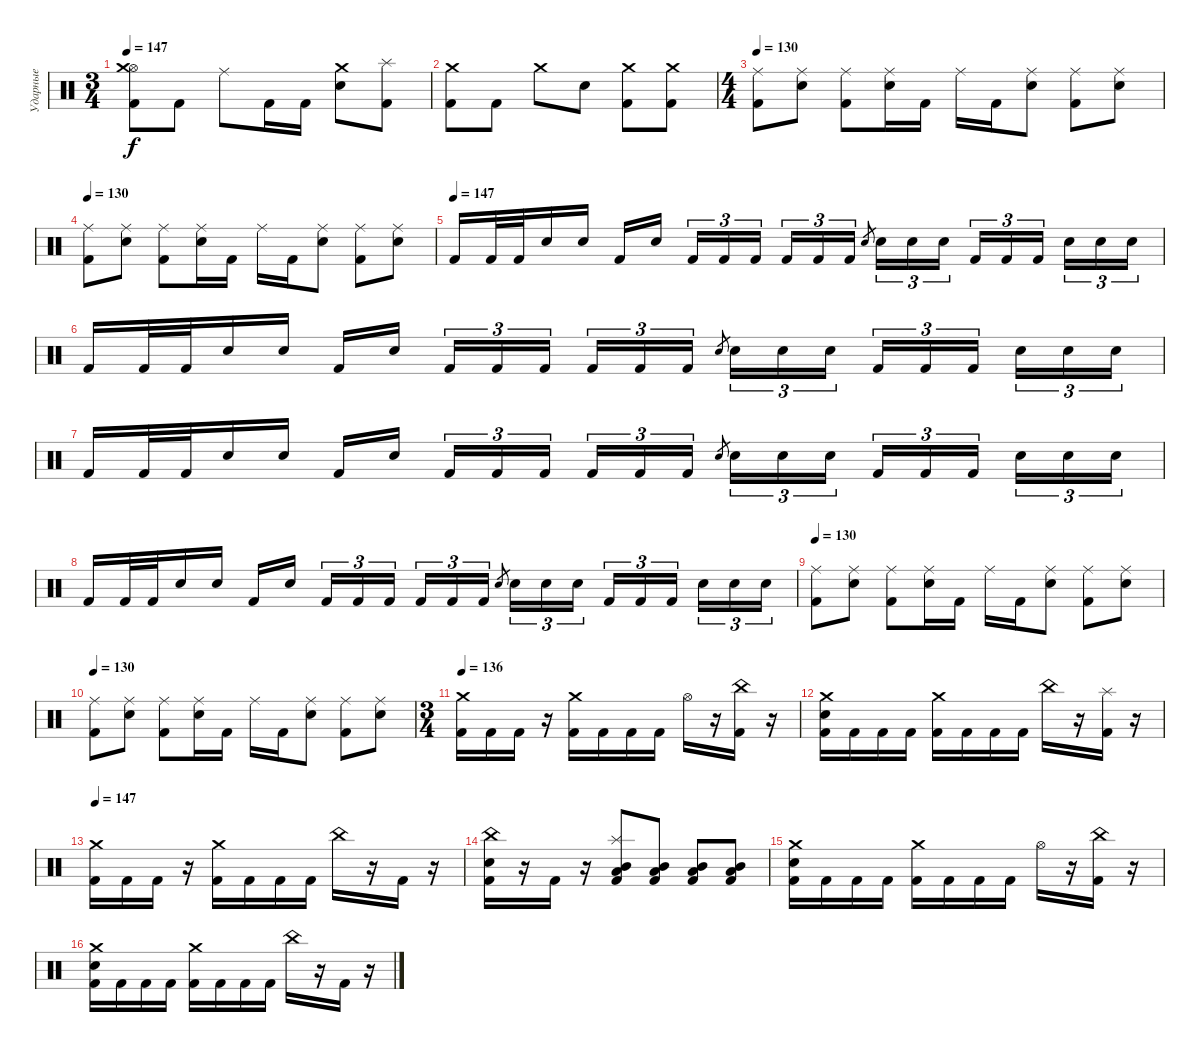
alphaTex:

\track ("Ударные" "Ударные") {instrument percussion}
\staff {score}
\articulation defaults
\ts (3 4)
\tempo 147
\clef neutral
\ks c
("Hi-Hat (open)" "Crash medium (hit)" "Kick (hit) 2").8{dy f} "Kick (hit) 2".8 "Ride (middle)".8 "Kick (hit) 2".16 "Kick (hit) 2".16 ("Crash medium (hit)" "Electric Snare (hit)").8 ("Splash (hit)" "Kick (hit) 2").8 |
("Crash medium (hit)" "Kick (hit) 2").8 "Kick (hit) 2".8 "Crash medium (hit)".8 "Electric Snare (hit)".8 ("Crash medium (hit)" "Kick (hit) 2").8 ("Crash medium (hit)" "Kick (hit) 2").8 |
\ts (4 4)
\tempo 130
("Ride (middle)" "Kick (hit) 2").8 ("Ride (middle)" "Electric Snare (hit)").8 ("Ride (middle)" "Kick (hit) 2").8 ("Ride (middle)" "Electric Snare (hit)").16 "Kick (hit) 2".16 "Ride (middle)".16 "Kick (hit) 2".16 ("Ride (middle)" "Electric Snare (hit)").8 ("Ride (middle)" "Kick (hit) 2").8 ("Ride (middle)" "Electric Snare (hit)").8 |
\tempo 130
("Ride (middle)" "Kick (hit) 2").8 ("Ride (middle)" "Electric Snare (hit)").8 ("Ride (middle)" "Kick (hit) 2").8 ("Ride (middle)" "Electric Snare (hit)").16 "Kick (hit) 2".16 "Ride (middle)".16 "Kick (hit) 2".16 ("Ride (middle)" "Electric Snare (hit)").8 ("Ride (middle)" "Kick (hit) 2").8 ("Ride (middle)" "Electric Snare (hit)").8 |
\tempo (147)
"Kick (hit) 2".16 "Kick (hit) 2".32 "Kick (hit) 2".32 "Electric Snare (hit)".16 "Electric Snare (hit)".16 "Kick (hit) 2".16 "Electric Snare (hit)".16{beam splitsecondary} "Kick (hit) 2".16{tu (3 2)} "Kick (hit) 2".16{tu (3 2)} "Kick (hit) 2".16{tu (3 2)} "Kick (hit) 2".16{tu (3 2)} "Kick (hit) 2".16{tu (3 2)} "Kick (hit) 2".16{tu (3 2)} "Electric Snare (hit)".8{gr beam splitsecondary} "Electric Snare (hit)".16{tu (3 2)} "Electric Snare (hit)".16{tu (3 2)} "Electric Snare (hit)".16{tu (3 2)} "Kick (hit) 2".16{tu (3 2)} "Kick (hit) 2".16{tu (3 2)} "Kick (hit) 2".16{tu (3 2) beam splitsecondary} "Electric Snare (hit)".16{tu (3 2)} "Electric Snare (hit)".16{tu (3 2)} "Electric Snare (hit)".16{tu (3 2)} |
"Kick (hit) 2".16 "Kick (hit) 2".32 "Kick (hit) 2".32 "Electric Snare (hit)".16 "Electric Snare (hit)".16 "Kick (hit) 2".16 "Electric Snare (hit)".16{beam splitsecondary} "Kick (hit) 2".16{tu (3 2)} "Kick (hit) 2".16{tu (3 2)} "Kick (hit) 2".16{tu (3 2)} "Kick (hit) 2".16{tu (3 2)} "Kick (hit) 2".16{tu (3 2)} "Kick (hit) 2".16{tu (3 2)} "Electric Snare (hit)".8{gr beam splitsecondary} "Electric Snare (hit)".16{tu (3 2)} "Electric Snare (hit)".16{tu (3 2)} "Electric Snare (hit)".16{tu (3 2)} "Kick (hit) 2".16{tu (3 2)} "Kick (hit) 2".16{tu (3 2)} "Kick (hit) 2".16{tu (3 2) beam splitsecondary} "Electric Snare (hit)".16{tu (3 2)} "Electric Snare (hit)".16{tu (3 2)} "Electric Snare (hit)".16{tu (3 2)} |
"Kick (hit) 2".16 "Kick (hit) 2".32 "Kick (hit) 2".32 "Electric Snare (hit)".16 "Electric Snare (hit)".16 "Kick (hit) 2".16 "Electric Snare (hit)".16{beam splitsecondary} "Kick (hit) 2".16{tu (3 2)} "Kick (hit) 2".16{tu (3 2)} "Kick (hit) 2".16{tu (3 2)} "Kick (hit) 2".16{tu (3 2)} "Kick (hit) 2".16{tu (3 2)} "Kick (hit) 2".16{tu (3 2)} "Electric Snare (hit)".8{gr beam splitsecondary} "Electric Snare (hit)".16{tu (3 2)} "Electric Snare (hit)".16{tu (3 2)} "Electric Snare (hit)".16{tu (3 2)} "Kick (hit) 2".16{tu (3 2)} "Kick (hit) 2".16{tu (3 2)} "Kick (hit) 2".16{tu (3 2) beam splitsecondary} "Electric Snare (hit)".16{tu (3 2)} "Electric Snare (hit)".16{tu (3 2)} "Electric Snare (hit)".16{tu (3 2)} |
"Kick (hit) 2".16 "Kick (hit) 2".32 "Kick (hit) 2".32 "Electric Snare (hit)".16 "Electric Snare (hit)".16 "Kick (hit) 2".16 "Electric Snare (hit)".16{beam splitsecondary} "Kick (hit) 2".16{tu (3 2)} "Kick (hit) 2".16{tu (3 2)} "Kick (hit) 2".16{tu (3 2)} "Kick (hit) 2".16{tu (3 2)} "Kick (hit) 2".16{tu (3 2)} "Kick (hit) 2".16{tu (3 2)} "Electric Snare (hit)".8{gr beam splitsecondary} "Electric Snare (hit)".16{tu (3 2)} "Electric Snare (hit)".16{tu (3 2)} "Electric Snare (hit)".16{tu (3 2)} "Kick (hit) 2".16{tu (3 2)} "Kick (hit) 2".16{tu (3 2)} "Kick (hit) 2".16{tu (3 2) beam splitsecondary} "Electric Snare (hit)".16{tu (3 2)} "Electric Snare (hit)".16{tu (3 2)} "Electric Snare (hit)".16{tu (3 2)} |
\tempo 130
("Ride (middle)" "Kick (hit) 2").8 ("Ride (middle)" "Electric Snare (hit)").8 ("Ride (middle)" "Kick (hit) 2").8 ("Ride (middle)" "Electric Snare (hit)").16 "Kick (hit) 2".16 "Ride (middle)".16 "Kick (hit) 2".16 ("Ride (middle)" "Electric Snare (hit)").8 ("Ride (middle)" "Kick (hit) 2").8 ("Ride (middle)" "Electric Snare (hit)").8 |
\tempo 130
("Ride (middle)" "Kick (hit) 2").8 ("Ride (middle)" "Electric Snare (hit)").8 ("Ride (middle)" "Kick (hit) 2").8 ("Ride (middle)" "Electric Snare (hit)").16 "Kick (hit) 2".16 "Ride (middle)".16 "Kick (hit) 2".16 ("Ride (middle)" "Electric Snare (hit)").8 ("Ride (middle)" "Kick (hit) 2").8 ("Ride (middle)" "Electric Snare (hit)").8 |
\ts (3 4)
\tempo 136
("Crash medium (hit)" "Kick (hit) 2").16 "Kick (hit) 2".16 "Kick (hit) 2".16 r.16 ("Crash medium (hit)" "Kick (hit) 2").16 "Kick (hit) 2".16 "Kick (hit) 2".16 "Kick (hit) 2".16 "Hi-Hat (open)".16 r.16 ("China (hit)" "Kick (hit) 2").16 r.16 |
("Crash medium (hit)" "Electric Snare (hit)" "Kick (hit) 2").16 "Kick (hit) 2".16 "Kick (hit) 2".16 "Kick (hit) 2".16 ("Crash medium (hit)" "Kick (hit) 2").16 "Kick (hit) 2".16 "Kick (hit) 2".16 "Kick (hit) 2".16 "China (hit)".16 r.16 ("Splash (hit)" "Kick (hit) 2").16 r.16 |
\tempo 147
("Crash medium (hit)" "Kick (hit) 2").16 "Kick (hit) 2".16 "Kick (hit) 2".16 r.16 ("Crash medium (hit)" "Kick (hit) 2").16 "Kick (hit) 2".16 "Kick (hit) 2".16 "Kick (hit) 2".16 "China (hit)".16 r.16 "Kick (hit) 2".16 r.16 |
("China (hit)" "Electric Snare (hit)" "Kick (hit) 2").16 r.16 "Kick (hit) 2".16 r.16 ("Splash (hit)" "Mid Tom (hit)" "Low Tom (hit)" "Kick (hit) 2").8 ("Mid Tom (hit)" "Low Tom (hit)" "Kick (hit) 2").8 ("Mid Tom (hit)" "Low Tom (hit)" "Kick (hit) 2").8 ("Mid Tom (hit)" "Low Tom (hit)" "Kick (hit) 2").8 |
("Crash medium (hit)" "Electric Snare (hit)" "Kick (hit) 2").16 "Kick (hit) 2".16 "Kick (hit) 2".16 "Kick (hit) 2".16 ("Crash medium (hit)" "Kick (hit) 2").16 "Kick (hit) 2".16 "Kick (hit) 2".16 "Kick (hit) 2".16 "Hi-Hat (open)".16 r.16 ("China (hit)" "Kick (hit) 2").16 r.16 |
("Crash medium (hit)" "Electric Snare (hit)" "Kick (hit) 2").16 "Kick (hit) 2".16 "Kick (hit) 2".16 "Kick (hit) 2".16 ("Crash medium (hit)" "Kick (hit) 2").16 "Kick (hit) 2".16 "Kick (hit) 2".16 "Kick (hit) 2".16 "China (hit)".16 r.16 "Kick (hit) 2".16 r.16
